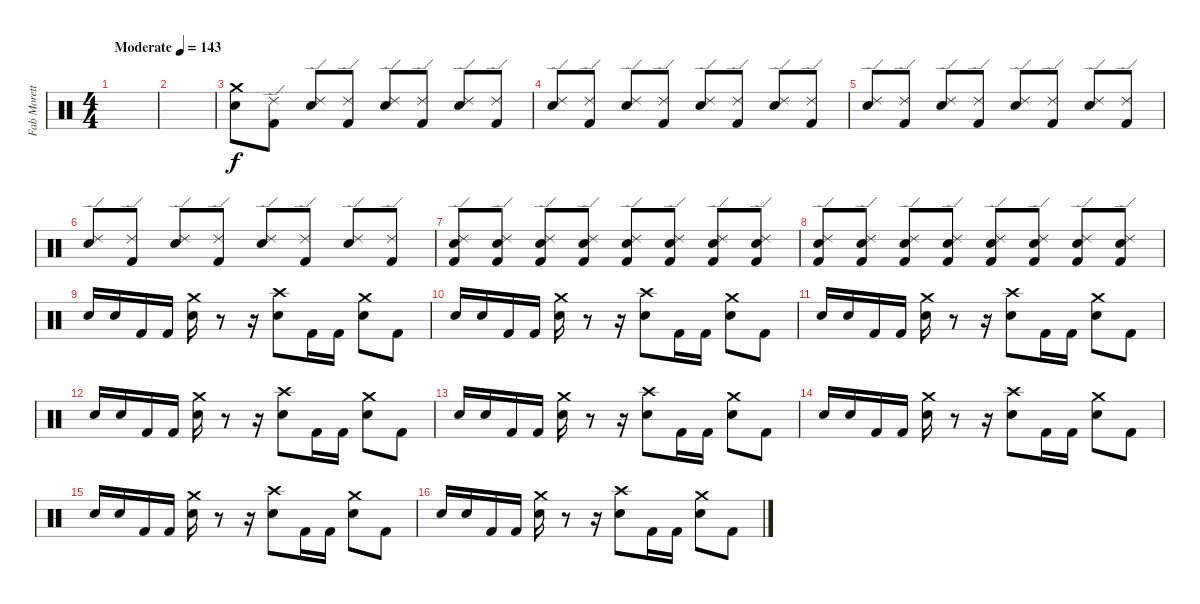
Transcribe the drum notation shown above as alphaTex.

\track ("Fab Moretti" "Fab Morett") {instrument percussion}
\staff {score}
\articulation defaults
\ts (4 4)
\tempo (143 "Moderate")
\clef neutral
\ks c
|
|
("Crash medium (hit)" "Electric Snare (hit)").8 ("Ride (edge) 2" "Kick (hit) 2").8 ("Ride (edge) 2" "Electric Snare (hit)").8 ("Ride (edge) 2" "Kick (hit) 2").8 ("Ride (edge) 2" "Electric Snare (hit)").8 ("Ride (edge) 2" "Kick (hit) 2").8 ("Ride (edge) 2" "Electric Snare (hit)").8 ("Ride (edge) 2" "Kick (hit) 2").8 |
("Ride (edge) 2" "Electric Snare (hit)").8 ("Ride (edge) 2" "Kick (hit) 2").8 ("Ride (edge) 2" "Electric Snare (hit)").8 ("Ride (edge) 2" "Kick (hit) 2").8 ("Ride (edge) 2" "Electric Snare (hit)").8 ("Ride (edge) 2" "Kick (hit) 2").8 ("Ride (edge) 2" "Electric Snare (hit)").8 ("Ride (edge) 2" "Kick (hit) 2").8 |
("Ride (edge) 2" "Electric Snare (hit)").8 ("Ride (edge) 2" "Kick (hit) 2").8 ("Ride (edge) 2" "Electric Snare (hit)").8 ("Ride (edge) 2" "Kick (hit) 2").8 ("Ride (edge) 2" "Electric Snare (hit)").8 ("Ride (edge) 2" "Kick (hit) 2").8 ("Ride (edge) 2" "Electric Snare (hit)").8 ("Ride (edge) 2" "Kick (hit) 2").8 |
("Ride (edge) 2" "Electric Snare (hit)").8 ("Ride (edge) 2" "Kick (hit) 2").8 ("Ride (edge) 2" "Electric Snare (hit)").8 ("Ride (edge) 2" "Kick (hit) 2").8 ("Ride (edge) 2" "Electric Snare (hit)").8 ("Ride (edge) 2" "Kick (hit) 2").8 ("Ride (edge) 2" "Electric Snare (hit)").8 ("Ride (edge) 2" "Kick (hit) 2").8 |
("Ride (edge) 2" "Electric Snare (hit)" "Kick (hit) 2").8 ("Ride (edge) 2" "Electric Snare (hit)" "Kick (hit) 2").8 ("Ride (edge) 2" "Electric Snare (hit)" "Kick (hit) 2").8 ("Ride (edge) 2" "Electric Snare (hit)" "Kick (hit) 2").8 ("Ride (edge) 2" "Electric Snare (hit)" "Kick (hit) 2").8 ("Ride (edge) 2" "Electric Snare (hit)" "Kick (hit) 2").8 ("Ride (edge) 2" "Electric Snare (hit)" "Kick (hit) 2").8 ("Ride (edge) 2" "Electric Snare (hit)" "Kick (hit) 2").8 |
("Ride (edge) 2" "Electric Snare (hit)" "Kick (hit) 2").8 ("Ride (edge) 2" "Electric Snare (hit)" "Kick (hit) 2").8 ("Ride (edge) 2" "Electric Snare (hit)" "Kick (hit) 2").8 ("Ride (edge) 2" "Electric Snare (hit)" "Kick (hit) 2").8 ("Ride (edge) 2" "Electric Snare (hit)" "Kick (hit) 2").8 ("Ride (edge) 2" "Electric Snare (hit)" "Kick (hit) 2").8 ("Ride (edge) 2" "Electric Snare (hit)" "Kick (hit) 2").8 ("Ride (edge) 2" "Electric Snare (hit)" "Kick (hit) 2").8 |
"Electric Snare (hit)".16 "Electric Snare (hit)".16 "Kick (hit) 2".16 "Kick (hit) 2".16 ("Crash medium (hit)" "Electric Snare (hit)").16 r.8 r.16 ("Crash high (hit)" "Electric Snare (hit)").8 "Kick (hit) 2".16 "Kick (hit) 2".16 ("Crash medium (hit)" "Electric Snare (hit)").8 "Kick (hit) 2".8 |
"Electric Snare (hit)".16 "Electric Snare (hit)".16 "Kick (hit) 2".16 "Kick (hit) 2".16 ("Crash medium (hit)" "Electric Snare (hit)").16 r.8 r.16 ("Crash high (hit)" "Electric Snare (hit)").8 "Kick (hit) 2".16 "Kick (hit) 2".16 ("Crash medium (hit)" "Electric Snare (hit)").8 "Kick (hit) 2".8 |
"Electric Snare (hit)".16 "Electric Snare (hit)".16 "Kick (hit) 2".16 "Kick (hit) 2".16 ("Crash medium (hit)" "Electric Snare (hit)").16 r.8 r.16 ("Crash high (hit)" "Electric Snare (hit)").8 "Kick (hit) 2".16 "Kick (hit) 2".16 ("Crash medium (hit)" "Electric Snare (hit)").8 "Kick (hit) 2".8 |
"Electric Snare (hit)".16 "Electric Snare (hit)".16 "Kick (hit) 2".16 "Kick (hit) 2".16 ("Crash medium (hit)" "Electric Snare (hit)").16 r.8 r.16 ("Crash high (hit)" "Electric Snare (hit)").8 "Kick (hit) 2".16 "Kick (hit) 2".16 ("Crash medium (hit)" "Electric Snare (hit)").8 "Kick (hit) 2".8 |
"Electric Snare (hit)".16 "Electric Snare (hit)".16 "Kick (hit) 2".16 "Kick (hit) 2".16 ("Crash medium (hit)" "Electric Snare (hit)").16 r.8 r.16 ("Crash high (hit)" "Electric Snare (hit)").8 "Kick (hit) 2".16 "Kick (hit) 2".16 ("Crash medium (hit)" "Electric Snare (hit)").8 "Kick (hit) 2".8 |
"Electric Snare (hit)".16 "Electric Snare (hit)".16 "Kick (hit) 2".16 "Kick (hit) 2".16 ("Crash medium (hit)" "Electric Snare (hit)").16 r.8 r.16 ("Crash high (hit)" "Electric Snare (hit)").8 "Kick (hit) 2".16 "Kick (hit) 2".16 ("Crash medium (hit)" "Electric Snare (hit)").8 "Kick (hit) 2".8 |
"Electric Snare (hit)".16 "Electric Snare (hit)".16 "Kick (hit) 2".16 "Kick (hit) 2".16 ("Crash medium (hit)" "Electric Snare (hit)").16 r.8 r.16 ("Crash high (hit)" "Electric Snare (hit)").8 "Kick (hit) 2".16 "Kick (hit) 2".16 ("Crash medium (hit)" "Electric Snare (hit)").8 "Kick (hit) 2".8 |
"Electric Snare (hit)".16 "Electric Snare (hit)".16 "Kick (hit) 2".16 "Kick (hit) 2".16 ("Crash medium (hit)" "Electric Snare (hit)").16 r.8 r.16 ("Crash high (hit)" "Electric Snare (hit)").8 "Kick (hit) 2".16 "Kick (hit) 2".16 ("Crash medium (hit)" "Electric Snare (hit)").8 "Kick (hit) 2".8
